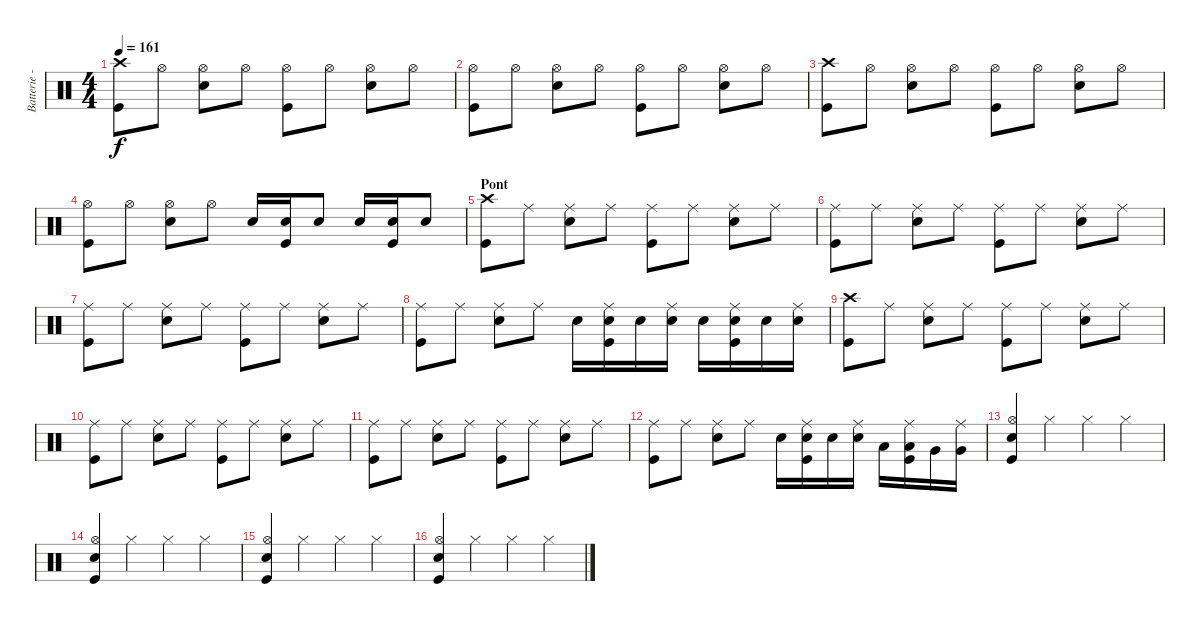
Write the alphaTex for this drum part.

\track ("Batterie - Alex" "Batterie -") {instrument percussion}
\staff {score}
\articulation defaults
\ts (4 4)
\tempo 161
\clef neutral
\ks c
("Crash high (hit)" "Kick (hit)").8{dy f} "Hi-Hat (open)".8 ("Hi-Hat (open)" "Electric Snare (hit)").8 "Hi-Hat (open)".8 ("Hi-Hat (open)" "Kick (hit)").8 "Hi-Hat (open)".8 ("Hi-Hat (open)" "Electric Snare (hit)").8 "Hi-Hat (open)".8 |
("Hi-Hat (open)" "Kick (hit)").8 "Hi-Hat (open)".8 ("Hi-Hat (open)" "Electric Snare (hit)").8 "Hi-Hat (open)".8 ("Hi-Hat (open)" "Kick (hit)").8 "Hi-Hat (open)".8 ("Hi-Hat (open)" "Electric Snare (hit)").8 "Hi-Hat (open)".8 |
("Crash high (hit)" "Kick (hit)").8 "Hi-Hat (open)".8 ("Hi-Hat (open)" "Electric Snare (hit)").8 "Hi-Hat (open)".8 ("Hi-Hat (open)" "Kick (hit)").8 "Hi-Hat (open)".8 ("Hi-Hat (open)" "Electric Snare (hit)").8 "Hi-Hat (open)".8 |
("Hi-Hat (open)" "Kick (hit)").8 "Hi-Hat (open)".8 ("Hi-Hat (open)" "Electric Snare (hit)").8 "Hi-Hat (open)".8 "Electric Snare (hit)".16 ("Electric Snare (hit)" "Kick (hit)").16 "Electric Snare (hit)".8 "Electric Snare (hit)".16 ("Electric Snare (hit)" "Kick (hit)").16 "Electric Snare (hit)".8 |
\section ("" "Pont")
("Crash high (hit)" "Kick (hit)").8 "Ride (middle)".8 ("Ride (middle)" "Electric Snare (hit)").8 "Ride (middle)".8 ("Ride (middle)" "Kick (hit)").8 "Ride (middle)".8 ("Ride (middle)" "Electric Snare (hit)").8 "Ride (middle)".8 |
("Ride (middle)" "Kick (hit)").8 "Ride (middle)".8 ("Ride (middle)" "Electric Snare (hit)").8 "Ride (middle)".8 ("Ride (middle)" "Kick (hit)").8 "Ride (middle)".8 ("Ride (middle)" "Electric Snare (hit)").8 "Ride (middle)".8 |
("Ride (middle)" "Kick (hit)").8 "Ride (middle)".8 ("Ride (middle)" "Electric Snare (hit)").8 "Ride (middle)".8 ("Ride (middle)" "Kick (hit)").8 "Ride (middle)".8 ("Ride (middle)" "Electric Snare (hit)").8 "Ride (middle)".8 |
("Ride (middle)" "Kick (hit)").8 "Ride (middle)".8 ("Ride (middle)" "Electric Snare (hit)").8 "Ride (middle)".8 "Electric Snare (hit)".16 ("Ride (middle)" "Electric Snare (hit)" "Kick (hit)").16 "Electric Snare (hit)".16 ("Ride (middle)" "Electric Snare (hit)").16 "Electric Snare (hit)".16 ("Ride (middle)" "Electric Snare (hit)" "Kick (hit)").16 "Electric Snare (hit)".16 ("Ride (middle)" "Electric Snare (hit)").16 |
("Crash high (hit)" "Kick (hit)").8 "Ride (middle)".8 ("Ride (middle)" "Electric Snare (hit)").8 "Ride (middle)".8 ("Ride (middle)" "Kick (hit)").8 "Ride (middle)".8 ("Ride (middle)" "Electric Snare (hit)").8 "Ride (middle)".8 |
("Ride (middle)" "Kick (hit)").8 "Ride (middle)".8 ("Ride (middle)" "Electric Snare (hit)").8 "Ride (middle)".8 ("Ride (middle)" "Kick (hit)").8 "Ride (middle)".8 ("Ride (middle)" "Electric Snare (hit)").8 "Ride (middle)".8 |
("Ride (middle)" "Kick (hit)").8 "Ride (middle)".8 ("Ride (middle)" "Electric Snare (hit)").8 "Ride (middle)".8 ("Ride (middle)" "Kick (hit)").8 "Ride (middle)".8 ("Ride (middle)" "Electric Snare (hit)").8 "Ride (middle)".8 |
("Ride (middle)" "Kick (hit)").8 "Ride (middle)".8 ("Ride (middle)" "Electric Snare (hit)").8 "Ride (middle)".8 "Electric Snare (hit)".16 ("Ride (middle)" "Electric Snare (hit)" "Kick (hit)").16 "Electric Snare (hit)".16 ("Ride (middle)" "Electric Snare (hit)").16 "Low Floor Tom (hit)".16 ("Ride (middle)" "Low Floor Tom (hit)" "Kick (hit)").16 "Very Low Tom (hit)".16 ("Ride (middle)" "Very Low Tom (hit)").16 |
("Hi-Hat (open)" "Snare (hit) 2" "Kick (hit)").4 "Hi-Hat (closed)".4 "Hi-Hat (closed)".4 "Hi-Hat (closed)".4 |
("Hi-Hat (open)" "Snare (hit) 2" "Kick (hit)").4 "Hi-Hat (closed)".4 "Hi-Hat (closed)".4 "Hi-Hat (closed)".4 |
("Hi-Hat (open)" "Snare (hit) 2" "Kick (hit)").4 "Hi-Hat (closed)".4 "Hi-Hat (closed)".4 "Hi-Hat (closed)".4 |
("Hi-Hat (open)" "Snare (hit) 2" "Kick (hit)").4 "Hi-Hat (closed)".4 "Hi-Hat (closed)".4 "Hi-Hat (closed)".4
